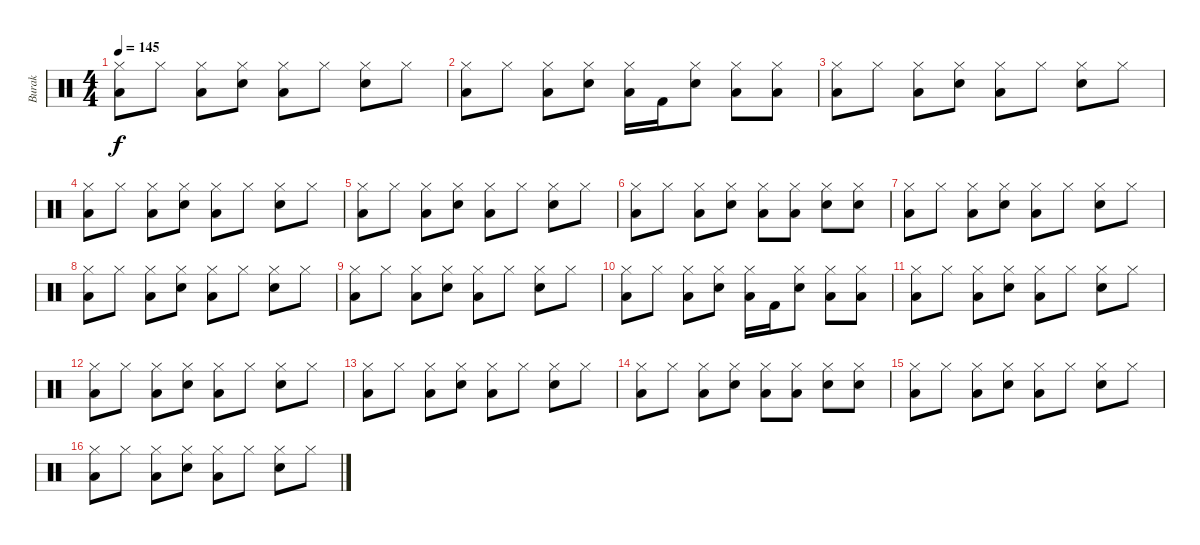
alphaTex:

\track ("Burak" "Burak") {instrument percussion}
\staff {score}
\articulation defaults
\ts (4 4)
\tempo 145
\clef neutral
\ks c
("Low Tom (hit)" "Hi-Hat (closed)").8{dy f} "Hi-Hat (closed)".8 ("Low Tom (hit)" "Hi-Hat (closed)").8 ("Electric Snare (hit)" "Hi-Hat (closed)").8 ("Low Tom (hit)" "Hi-Hat (closed)").8 "Hi-Hat (closed)".8 ("Electric Snare (hit)" "Hi-Hat (closed)").8 "Hi-Hat (closed)".8 |
("Low Tom (hit)" "Hi-Hat (closed)").8 "Hi-Hat (closed)".8 ("Low Tom (hit)" "Hi-Hat (closed)").8 ("Electric Snare (hit)" "Hi-Hat (closed)").8 ("Low Tom (hit)" "Hi-Hat (closed)").16 "Kick (hit) 2".16 ("Electric Snare (hit)" "Hi-Hat (closed)").8 ("Low Tom (hit)" "Hi-Hat (closed)").8 ("Low Tom (hit)" "Hi-Hat (closed)").8 |
("Low Tom (hit)" "Hi-Hat (closed)").8 "Hi-Hat (closed)".8 ("Low Tom (hit)" "Hi-Hat (closed)").8 ("Electric Snare (hit)" "Hi-Hat (closed)").8 ("Low Tom (hit)" "Hi-Hat (closed)").8 "Hi-Hat (closed)".8 ("Electric Snare (hit)" "Hi-Hat (closed)").8 "Hi-Hat (closed)".8 |
("Low Tom (hit)" "Hi-Hat (closed)").8 "Hi-Hat (closed)".8 ("Low Tom (hit)" "Hi-Hat (closed)").8 ("Electric Snare (hit)" "Hi-Hat (closed)").8 ("Low Tom (hit)" "Hi-Hat (closed)").8 "Hi-Hat (closed)".8 ("Electric Snare (hit)" "Hi-Hat (closed)").8 "Hi-Hat (closed)".8 |
("Low Tom (hit)" "Hi-Hat (closed)").8 "Hi-Hat (closed)".8 ("Low Tom (hit)" "Hi-Hat (closed)").8 ("Electric Snare (hit)" "Hi-Hat (closed)").8 ("Low Tom (hit)" "Hi-Hat (closed)").8 "Hi-Hat (closed)".8 ("Electric Snare (hit)" "Hi-Hat (closed)").8 "Hi-Hat (closed)".8 |
("Low Tom (hit)" "Hi-Hat (closed)").8 "Hi-Hat (closed)".8 ("Low Tom (hit)" "Hi-Hat (closed)").8 ("Electric Snare (hit)" "Hi-Hat (closed)").8 ("Low Tom (hit)" "Hi-Hat (closed)").8 ("Low Tom (hit)" "Hi-Hat (closed)").8 ("Electric Snare (hit)" "Hi-Hat (closed)").8 ("Electric Snare (hit)" "Hi-Hat (closed)").8 |
("Low Tom (hit)" "Hi-Hat (closed)").8 "Hi-Hat (closed)".8 ("Low Tom (hit)" "Hi-Hat (closed)").8 ("Electric Snare (hit)" "Hi-Hat (closed)").8 ("Low Tom (hit)" "Hi-Hat (closed)").8 "Hi-Hat (closed)".8 ("Electric Snare (hit)" "Hi-Hat (closed)").8 "Hi-Hat (closed)".8 |
("Low Tom (hit)" "Hi-Hat (closed)").8 "Hi-Hat (closed)".8 ("Low Tom (hit)" "Hi-Hat (closed)").8 ("Electric Snare (hit)" "Hi-Hat (closed)").8 ("Low Tom (hit)" "Hi-Hat (closed)").8 "Hi-Hat (closed)".8 ("Electric Snare (hit)" "Hi-Hat (closed)").8 "Hi-Hat (closed)".8 |
("Low Tom (hit)" "Hi-Hat (closed)").8 "Hi-Hat (closed)".8 ("Low Tom (hit)" "Hi-Hat (closed)").8 ("Electric Snare (hit)" "Hi-Hat (closed)").8 ("Low Tom (hit)" "Hi-Hat (closed)").8 "Hi-Hat (closed)".8 ("Electric Snare (hit)" "Hi-Hat (closed)").8 "Hi-Hat (closed)".8 |
("Low Tom (hit)" "Hi-Hat (closed)").8 "Hi-Hat (closed)".8 ("Low Tom (hit)" "Hi-Hat (closed)").8 ("Electric Snare (hit)" "Hi-Hat (closed)").8 ("Low Tom (hit)" "Hi-Hat (closed)").16 "Kick (hit) 2".16 ("Electric Snare (hit)" "Hi-Hat (closed)").8 ("Low Tom (hit)" "Hi-Hat (closed)").8 ("Low Tom (hit)" "Hi-Hat (closed)").8 |
("Low Tom (hit)" "Hi-Hat (closed)").8 "Hi-Hat (closed)".8 ("Low Tom (hit)" "Hi-Hat (closed)").8 ("Electric Snare (hit)" "Hi-Hat (closed)").8 ("Low Tom (hit)" "Hi-Hat (closed)").8 "Hi-Hat (closed)".8 ("Electric Snare (hit)" "Hi-Hat (closed)").8 "Hi-Hat (closed)".8 |
("Low Tom (hit)" "Hi-Hat (closed)").8 "Hi-Hat (closed)".8 ("Low Tom (hit)" "Hi-Hat (closed)").8 ("Electric Snare (hit)" "Hi-Hat (closed)").8 ("Low Tom (hit)" "Hi-Hat (closed)").8 "Hi-Hat (closed)".8 ("Electric Snare (hit)" "Hi-Hat (closed)").8 "Hi-Hat (closed)".8 |
("Low Tom (hit)" "Hi-Hat (closed)").8 "Hi-Hat (closed)".8 ("Low Tom (hit)" "Hi-Hat (closed)").8 ("Electric Snare (hit)" "Hi-Hat (closed)").8 ("Low Tom (hit)" "Hi-Hat (closed)").8 "Hi-Hat (closed)".8 ("Electric Snare (hit)" "Hi-Hat (closed)").8 "Hi-Hat (closed)".8 |
("Low Tom (hit)" "Hi-Hat (closed)").8 "Hi-Hat (closed)".8 ("Low Tom (hit)" "Hi-Hat (closed)").8 ("Electric Snare (hit)" "Hi-Hat (closed)").8 ("Low Tom (hit)" "Hi-Hat (closed)").8 ("Low Tom (hit)" "Hi-Hat (closed)").8 ("Electric Snare (hit)" "Hi-Hat (closed)").8 ("Electric Snare (hit)" "Hi-Hat (closed)").8 |
("Low Tom (hit)" "Hi-Hat (closed)").8 "Hi-Hat (closed)".8 ("Low Tom (hit)" "Hi-Hat (closed)").8 ("Electric Snare (hit)" "Hi-Hat (closed)").8 ("Low Tom (hit)" "Hi-Hat (closed)").8 "Hi-Hat (closed)".8 ("Electric Snare (hit)" "Hi-Hat (closed)").8 "Hi-Hat (closed)".8 |
("Low Tom (hit)" "Hi-Hat (closed)").8 "Hi-Hat (closed)".8 ("Low Tom (hit)" "Hi-Hat (closed)").8 ("Electric Snare (hit)" "Hi-Hat (closed)").8 ("Low Tom (hit)" "Hi-Hat (closed)").8 "Hi-Hat (closed)".8 ("Electric Snare (hit)" "Hi-Hat (closed)").8 "Hi-Hat (closed)".8
